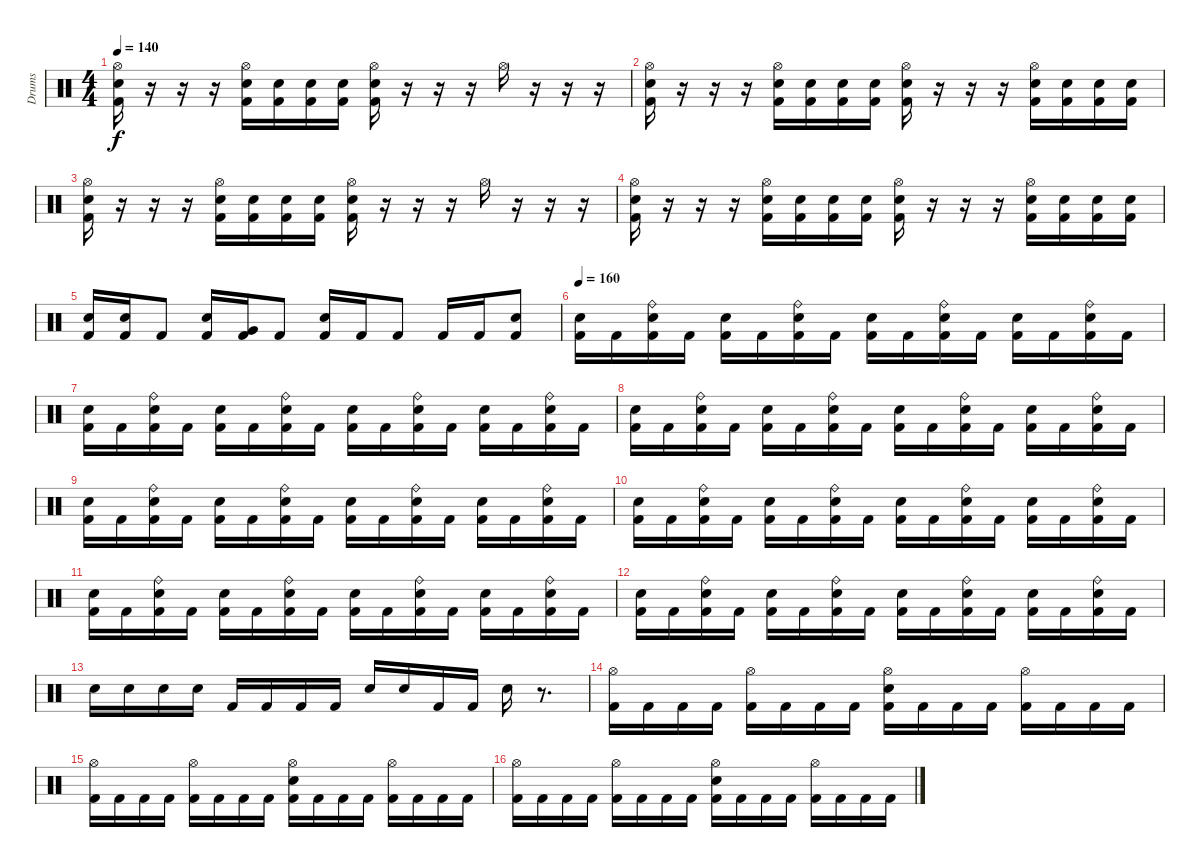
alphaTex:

\track ("Drums" "Drums") {instrument percussion}
\staff {score}
\articulation defaults
\ts (4 4)
\tempo 140
\clef neutral
\ks c
("Hi-Hat (open)" "Snare (hit) 2" "Kick (hit) 2").16{dy f} r.16 r.16 r.16 ("Hi-Hat (open)" "Snare (hit) 2" "Kick (hit) 2").16 ("Snare (hit) 2" "Kick (hit) 2").16 ("Snare (hit) 2" "Kick (hit) 2").16 ("Snare (hit) 2" "Kick (hit) 2").16 ("Hi-Hat (open)" "Snare (hit) 2" "Kick (hit) 2").16 r.16 r.16 r.16 "Hi-Hat (open)".16 r.16 r.16 r.16 |
("Hi-Hat (open)" "Snare (hit) 2" "Kick (hit) 2").16 r.16 r.16 r.16 ("Hi-Hat (open)" "Snare (hit) 2" "Kick (hit) 2").16 ("Snare (hit) 2" "Kick (hit) 2").16 ("Snare (hit) 2" "Kick (hit) 2").16 ("Snare (hit) 2" "Kick (hit) 2").16 ("Hi-Hat (open)" "Snare (hit) 2" "Kick (hit) 2").16 r.16 r.16 r.16 ("Hi-Hat (open)" "Snare (hit) 2" "Kick (hit) 2").16 ("Snare (hit) 2" "Kick (hit) 2").16 ("Snare (hit) 2" "Kick (hit) 2").16 ("Snare (hit) 2" "Kick (hit) 2").16 |
("Hi-Hat (open)" "Snare (hit) 2" "Kick (hit) 2").16 r.16 r.16 r.16 ("Hi-Hat (open)" "Snare (hit) 2" "Kick (hit) 2").16 ("Snare (hit) 2" "Kick (hit) 2").16 ("Snare (hit) 2" "Kick (hit) 2").16 ("Snare (hit) 2" "Kick (hit) 2").16 ("Hi-Hat (open)" "Snare (hit) 2" "Kick (hit) 2").16 r.16 r.16 r.16 "Hi-Hat (open)".16 r.16 r.16 r.16 |
("Hi-Hat (open)" "Snare (hit) 2" "Kick (hit) 2").16 r.16 r.16 r.16 ("Hi-Hat (open)" "Snare (hit) 2" "Kick (hit) 2").16 ("Snare (hit) 2" "Kick (hit) 2").16 ("Snare (hit) 2" "Kick (hit) 2").16 ("Snare (hit) 2" "Kick (hit) 2").16 ("Hi-Hat (open)" "Snare (hit) 2" "Kick (hit) 2").16 r.16 r.16 r.16 ("Hi-Hat (open)" "Snare (hit) 2" "Kick (hit) 2").16 ("Snare (hit) 2" "Kick (hit) 2").16 ("Snare (hit) 2" "Kick (hit) 2").16 ("Snare (hit) 2" "Kick (hit) 2").16 |
("Snare (hit) 2" "Kick (hit) 2").16 ("Snare (hit) 2" "Kick (hit) 2").16 "Kick (hit) 2".8 ("Snare (hit) 2" "Kick (hit) 2").16 ("Very Low Tom (hit)" "Kick (hit) 2").16 "Kick (hit) 2".8 ("Snare (hit) 2" "Kick (hit) 2").16 "Kick (hit) 2".16 "Kick (hit) 2".8 "Kick (hit) 2".16 "Kick (hit) 2".16 ("Snare (hit) 2" "Kick (hit) 2").8 |
\tempo 160
("Snare (hit) 2" "Kick (hit) 2").16 "Kick (hit) 2".16 ("Ride (bell)" "Snare (hit) 2" "Kick (hit) 2").16 "Kick (hit) 2".16 ("Snare (hit) 2" "Kick (hit) 2").16 "Kick (hit) 2".16 ("Ride (bell)" "Snare (hit) 2" "Kick (hit) 2").16 "Kick (hit) 2".16 ("Snare (hit) 2" "Kick (hit) 2").16 "Kick (hit) 2".16 ("Ride (bell)" "Snare (hit) 2" "Kick (hit) 2").16 "Kick (hit) 2".16 ("Snare (hit) 2" "Kick (hit) 2").16 "Kick (hit) 2".16 ("Ride (bell)" "Snare (hit) 2" "Kick (hit) 2").16 "Kick (hit) 2".16 |
("Snare (hit) 2" "Kick (hit) 2").16 "Kick (hit) 2".16 ("Ride (bell)" "Snare (hit) 2" "Kick (hit) 2").16 "Kick (hit) 2".16 ("Snare (hit) 2" "Kick (hit) 2").16 "Kick (hit) 2".16 ("Ride (bell)" "Snare (hit) 2" "Kick (hit) 2").16 "Kick (hit) 2".16 ("Snare (hit) 2" "Kick (hit) 2").16 "Kick (hit) 2".16 ("Ride (bell)" "Snare (hit) 2" "Kick (hit) 2").16 "Kick (hit) 2".16 ("Snare (hit) 2" "Kick (hit) 2").16 "Kick (hit) 2".16 ("Ride (bell)" "Snare (hit) 2" "Kick (hit) 2").16 "Kick (hit) 2".16 |
("Snare (hit) 2" "Kick (hit) 2").16 "Kick (hit) 2".16 ("Ride (bell)" "Snare (hit) 2" "Kick (hit) 2").16 "Kick (hit) 2".16 ("Snare (hit) 2" "Kick (hit) 2").16 "Kick (hit) 2".16 ("Ride (bell)" "Snare (hit) 2" "Kick (hit) 2").16 "Kick (hit) 2".16 ("Snare (hit) 2" "Kick (hit) 2").16 "Kick (hit) 2".16 ("Ride (bell)" "Snare (hit) 2" "Kick (hit) 2").16 "Kick (hit) 2".16 ("Snare (hit) 2" "Kick (hit) 2").16 "Kick (hit) 2".16 ("Ride (bell)" "Snare (hit) 2" "Kick (hit) 2").16 "Kick (hit) 2".16 |
("Snare (hit) 2" "Kick (hit) 2").16 "Kick (hit) 2".16 ("Ride (bell)" "Snare (hit) 2" "Kick (hit) 2").16 "Kick (hit) 2".16 ("Snare (hit) 2" "Kick (hit) 2").16 "Kick (hit) 2".16 ("Ride (bell)" "Snare (hit) 2" "Kick (hit) 2").16 "Kick (hit) 2".16 ("Snare (hit) 2" "Kick (hit) 2").16 "Kick (hit) 2".16 ("Ride (bell)" "Snare (hit) 2" "Kick (hit) 2").16 "Kick (hit) 2".16 ("Snare (hit) 2" "Kick (hit) 2").16 "Kick (hit) 2".16 ("Ride (bell)" "Snare (hit) 2" "Kick (hit) 2").16 "Kick (hit) 2".16 |
("Snare (hit) 2" "Kick (hit) 2").16 "Kick (hit) 2".16 ("Ride (bell)" "Snare (hit) 2" "Kick (hit) 2").16 "Kick (hit) 2".16 ("Snare (hit) 2" "Kick (hit) 2").16 "Kick (hit) 2".16 ("Ride (bell)" "Snare (hit) 2" "Kick (hit) 2").16 "Kick (hit) 2".16 ("Snare (hit) 2" "Kick (hit) 2").16 "Kick (hit) 2".16 ("Ride (bell)" "Snare (hit) 2" "Kick (hit) 2").16 "Kick (hit) 2".16 ("Snare (hit) 2" "Kick (hit) 2").16 "Kick (hit) 2".16 ("Ride (bell)" "Snare (hit) 2" "Kick (hit) 2").16 "Kick (hit) 2".16 |
("Snare (hit) 2" "Kick (hit) 2").16 "Kick (hit) 2".16 ("Ride (bell)" "Snare (hit) 2" "Kick (hit) 2").16 "Kick (hit) 2".16 ("Snare (hit) 2" "Kick (hit) 2").16 "Kick (hit) 2".16 ("Ride (bell)" "Snare (hit) 2" "Kick (hit) 2").16 "Kick (hit) 2".16 ("Snare (hit) 2" "Kick (hit) 2").16 "Kick (hit) 2".16 ("Ride (bell)" "Snare (hit) 2" "Kick (hit) 2").16 "Kick (hit) 2".16 ("Snare (hit) 2" "Kick (hit) 2").16 "Kick (hit) 2".16 ("Ride (bell)" "Snare (hit) 2" "Kick (hit) 2").16 "Kick (hit) 2".16 |
("Snare (hit) 2" "Kick (hit) 2").16 "Kick (hit) 2".16 ("Ride (bell)" "Snare (hit) 2" "Kick (hit) 2").16 "Kick (hit) 2".16 ("Snare (hit) 2" "Kick (hit) 2").16 "Kick (hit) 2".16 ("Ride (bell)" "Snare (hit) 2" "Kick (hit) 2").16 "Kick (hit) 2".16 ("Snare (hit) 2" "Kick (hit) 2").16 "Kick (hit) 2".16 ("Ride (bell)" "Snare (hit) 2" "Kick (hit) 2").16 "Kick (hit) 2".16 ("Snare (hit) 2" "Kick (hit) 2").16 "Kick (hit) 2".16 ("Ride (bell)" "Snare (hit) 2" "Kick (hit) 2").16 "Kick (hit) 2".16 |
"Snare (hit) 2".16 "Snare (hit) 2".16 "Snare (hit) 2".16 "Snare (hit) 2".16 "Kick (hit) 2".16 "Kick (hit) 2".16 "Kick (hit) 2".16 "Kick (hit) 2".16 "Snare (hit) 2".16 "Snare (hit) 2".16 "Kick (hit) 2".16 "Kick (hit) 2".16 "Snare (hit) 2".16 r.8{d} |
("Hi-Hat (open)" "Kick (hit) 2").16 "Kick (hit) 2".16 "Kick (hit) 2".16 "Kick (hit) 2".16 ("Hi-Hat (open)" "Kick (hit) 2").16 "Kick (hit) 2".16 "Kick (hit) 2".16 "Kick (hit) 2".16 ("Hi-Hat (open)" "Snare (hit) 2" "Kick (hit) 2").16 "Kick (hit) 2".16 "Kick (hit) 2".16 "Kick (hit) 2".16 ("Hi-Hat (open)" "Kick (hit) 2").16 "Kick (hit) 2".16 "Kick (hit) 2".16 "Kick (hit) 2".16 |
("Hi-Hat (open)" "Kick (hit) 2").16 "Kick (hit) 2".16 "Kick (hit) 2".16 "Kick (hit) 2".16 ("Hi-Hat (open)" "Kick (hit) 2").16 "Kick (hit) 2".16 "Kick (hit) 2".16 "Kick (hit) 2".16 ("Hi-Hat (open)" "Snare (hit) 2" "Kick (hit) 2").16 "Kick (hit) 2".16 "Kick (hit) 2".16 "Kick (hit) 2".16 ("Hi-Hat (open)" "Kick (hit) 2").16 "Kick (hit) 2".16 "Kick (hit) 2".16 "Kick (hit) 2".16 |
("Hi-Hat (open)" "Kick (hit) 2").16 "Kick (hit) 2".16 "Kick (hit) 2".16 "Kick (hit) 2".16 ("Hi-Hat (open)" "Kick (hit) 2").16 "Kick (hit) 2".16 "Kick (hit) 2".16 "Kick (hit) 2".16 ("Hi-Hat (open)" "Snare (hit) 2" "Kick (hit) 2").16 "Kick (hit) 2".16 "Kick (hit) 2".16 "Kick (hit) 2".16 ("Hi-Hat (open)" "Kick (hit) 2").16 "Kick (hit) 2".16 "Kick (hit) 2".16 "Kick (hit) 2".16
